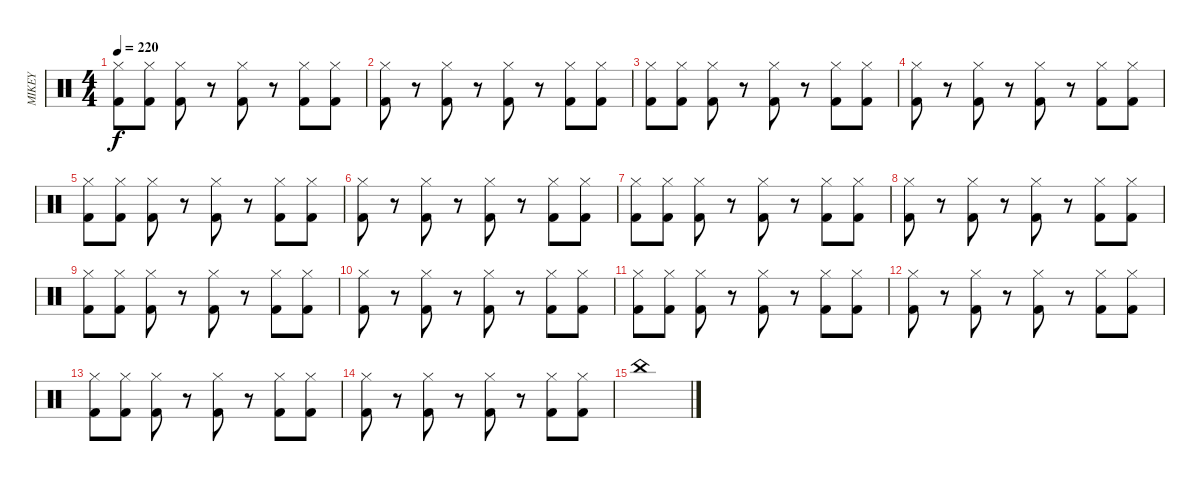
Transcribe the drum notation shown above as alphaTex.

\track ("MIKEY" "MIKEY") {instrument percussion}
\staff {score}
\articulation defaults
\ts (4 4)
\tempo 220
\clef neutral
\ks c
("Hi-Hat (closed)" "Kick (hit) 2").8{dy f} ("Hi-Hat (closed)" "Kick (hit) 2").8 ("Hi-Hat (closed)" "Kick (hit) 2").8 r.8 ("Hi-Hat (closed)" "Kick (hit) 2").8 r.8 ("Hi-Hat (closed)" "Kick (hit) 2").8 ("Hi-Hat (closed)" "Kick (hit) 2").8 |
("Hi-Hat (closed)" "Kick (hit) 2").8 r.8 ("Hi-Hat (closed)" "Kick (hit) 2").8 r.8 ("Hi-Hat (closed)" "Kick (hit) 2").8 r.8 ("Hi-Hat (closed)" "Kick (hit) 2").8 ("Hi-Hat (closed)" "Kick (hit) 2").8 |
("Hi-Hat (closed)" "Kick (hit) 2").8 ("Hi-Hat (closed)" "Kick (hit) 2").8 ("Hi-Hat (closed)" "Kick (hit) 2").8 r.8 ("Hi-Hat (closed)" "Kick (hit) 2").8 r.8 ("Hi-Hat (closed)" "Kick (hit) 2").8 ("Hi-Hat (closed)" "Kick (hit) 2").8 |
("Hi-Hat (closed)" "Kick (hit) 2").8 r.8 ("Hi-Hat (closed)" "Kick (hit) 2").8 r.8 ("Hi-Hat (closed)" "Kick (hit) 2").8 r.8 ("Hi-Hat (closed)" "Kick (hit) 2").8 ("Hi-Hat (closed)" "Kick (hit) 2").8 |
("Hi-Hat (closed)" "Kick (hit) 2").8 ("Hi-Hat (closed)" "Kick (hit) 2").8 ("Hi-Hat (closed)" "Kick (hit) 2").8 r.8 ("Hi-Hat (closed)" "Kick (hit) 2").8 r.8 ("Hi-Hat (closed)" "Kick (hit) 2").8 ("Hi-Hat (closed)" "Kick (hit) 2").8 |
("Hi-Hat (closed)" "Kick (hit) 2").8 r.8 ("Hi-Hat (closed)" "Kick (hit) 2").8 r.8 ("Hi-Hat (closed)" "Kick (hit) 2").8 r.8 ("Hi-Hat (closed)" "Kick (hit) 2").8 ("Hi-Hat (closed)" "Kick (hit) 2").8 |
("Hi-Hat (closed)" "Kick (hit) 2").8 ("Hi-Hat (closed)" "Kick (hit) 2").8 ("Hi-Hat (closed)" "Kick (hit) 2").8 r.8 ("Hi-Hat (closed)" "Kick (hit) 2").8 r.8 ("Hi-Hat (closed)" "Kick (hit) 2").8 ("Hi-Hat (closed)" "Kick (hit) 2").8 |
("Hi-Hat (closed)" "Kick (hit) 2").8 r.8 ("Hi-Hat (closed)" "Kick (hit) 2").8 r.8 ("Hi-Hat (closed)" "Kick (hit) 2").8 r.8 ("Hi-Hat (closed)" "Kick (hit) 2").8 ("Hi-Hat (closed)" "Kick (hit) 2").8 |
("Hi-Hat (closed)" "Kick (hit) 2").8 ("Hi-Hat (closed)" "Kick (hit) 2").8 ("Hi-Hat (closed)" "Kick (hit) 2").8 r.8 ("Hi-Hat (closed)" "Kick (hit) 2").8 r.8 ("Hi-Hat (closed)" "Kick (hit) 2").8 ("Hi-Hat (closed)" "Kick (hit) 2").8 |
("Hi-Hat (closed)" "Kick (hit) 2").8 r.8 ("Hi-Hat (closed)" "Kick (hit) 2").8 r.8 ("Hi-Hat (closed)" "Kick (hit) 2").8 r.8 ("Hi-Hat (closed)" "Kick (hit) 2").8 ("Hi-Hat (closed)" "Kick (hit) 2").8 |
("Hi-Hat (closed)" "Kick (hit) 2").8 ("Hi-Hat (closed)" "Kick (hit) 2").8 ("Hi-Hat (closed)" "Kick (hit) 2").8 r.8 ("Hi-Hat (closed)" "Kick (hit) 2").8 r.8 ("Hi-Hat (closed)" "Kick (hit) 2").8 ("Hi-Hat (closed)" "Kick (hit) 2").8 |
("Hi-Hat (closed)" "Kick (hit) 2").8 r.8 ("Hi-Hat (closed)" "Kick (hit) 2").8 r.8 ("Hi-Hat (closed)" "Kick (hit) 2").8 r.8 ("Hi-Hat (closed)" "Kick (hit) 2").8 ("Hi-Hat (closed)" "Kick (hit) 2").8 |
("Hi-Hat (closed)" "Kick (hit) 2").8 ("Hi-Hat (closed)" "Kick (hit) 2").8 ("Hi-Hat (closed)" "Kick (hit) 2").8 r.8 ("Hi-Hat (closed)" "Kick (hit) 2").8 r.8 ("Hi-Hat (closed)" "Kick (hit) 2").8 ("Hi-Hat (closed)" "Kick (hit) 2").8 |
("Hi-Hat (closed)" "Kick (hit) 2").8 r.8 ("Hi-Hat (closed)" "Kick (hit) 2").8 r.8 ("Hi-Hat (closed)" "Kick (hit) 2").8 r.8 ("Hi-Hat (closed)" "Kick (hit) 2").8 ("Hi-Hat (closed)" "Kick (hit) 2").8 |
"China (hit)".1
